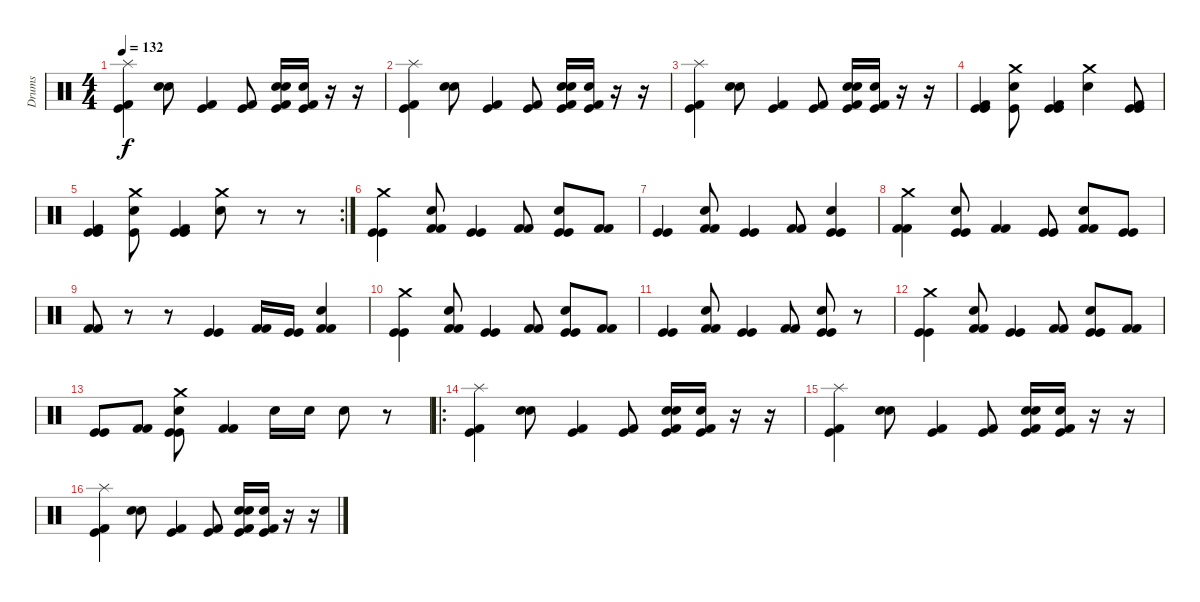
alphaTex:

\track ("Drums" "Drums") {instrument percussion}
\staff {score}
\articulation defaults
\ts (4 4)
\tempo 132
\clef neutral
\ks c
("Splash (hit)" "Kick (hit)" "Kick (hit) 2").4{dy f} ("Electric Snare (hit)" "Electric Snare (hit)").8 ("Kick (hit)" "Kick (hit) 2").4 ("Kick (hit)" "Kick (hit) 2").8 ("Electric Snare (hit)" "Electric Snare (hit)" "Kick (hit) 2" "Kick (hit)").16 ("Electric Snare (hit)" "Kick (hit) 2" "Kick (hit)").16 r.16 r.16 |
("Splash (hit)" "Kick (hit)" "Kick (hit) 2").4 ("Electric Snare (hit)" "Electric Snare (hit)").8 ("Kick (hit)" "Kick (hit) 2").4 ("Kick (hit)" "Kick (hit) 2").8 ("Electric Snare (hit)" "Electric Snare (hit)" "Kick (hit) 2" "Kick (hit)").16 ("Electric Snare (hit)" "Kick (hit) 2" "Kick (hit)").16 r.16 r.16 |
("Splash (hit)" "Kick (hit)" "Kick (hit) 2").4 ("Electric Snare (hit)" "Electric Snare (hit)").8 ("Kick (hit)" "Kick (hit) 2").4 ("Kick (hit)" "Kick (hit) 2").8 ("Electric Snare (hit)" "Electric Snare (hit)" "Kick (hit) 2" "Kick (hit)").16 ("Electric Snare (hit)" "Kick (hit) 2" "Kick (hit)").16 r.16 r.16 |
("Kick (hit)" "Kick (hit) 2" "Kick (hit)").4 ("Crash medium (hit)" "Electric Snare (hit)" "Kick (hit)").8 ("Kick (hit)" "Kick (hit) 2" "Kick (hit)").4 ("Crash medium (hit)" "Electric Snare (hit)").4 ("Kick (hit)" "Kick (hit) 2" "Kick (hit)").8 |
\rc 2
("Kick (hit)" "Kick (hit) 2" "Kick (hit)").4 ("Crash medium (hit)" "Electric Snare (hit)" "Kick (hit)").8 ("Kick (hit)" "Kick (hit) 2" "Kick (hit)").4 ("Crash medium (hit)" "Electric Snare (hit)").8 r.8 r.8 |
("Crash medium (hit)" "Kick (hit)" "Kick (hit)").4 ("Electric Snare (hit)" "Kick (hit) 2" "Kick (hit) 2").8 ("Kick (hit)" "Kick (hit)").4 ("Kick (hit) 2" "Kick (hit) 2").8 ("Electric Snare (hit)" "Kick (hit)" "Kick (hit)").8 ("Kick (hit) 2" "Kick (hit) 2").8 |
("Kick (hit)" "Kick (hit)").4 ("Electric Snare (hit)" "Kick (hit) 2" "Kick (hit) 2").8 ("Kick (hit)" "Kick (hit)").4 ("Kick (hit) 2" "Kick (hit) 2").8 ("Electric Snare (hit)" "Kick (hit)" "Kick (hit)").4 |
("Crash medium (hit)" "Kick (hit) 2" "Kick (hit) 2").4 ("Electric Snare (hit)" "Kick (hit)" "Kick (hit)").8 ("Kick (hit) 2" "Kick (hit) 2").4 ("Kick (hit)" "Kick (hit)").8 ("Electric Snare (hit)" "Kick (hit) 2" "Kick (hit) 2").8 ("Kick (hit)" "Kick (hit)").8 |
("Kick (hit) 2" "Kick (hit) 2").8 r.8 r.8 ("Kick (hit)" "Kick (hit)").4 ("Kick (hit) 2" "Kick (hit) 2").16 ("Kick (hit)" "Kick (hit)").16 ("Electric Snare (hit)" "Kick (hit) 2" "Kick (hit) 2").4 |
("Crash medium (hit)" "Kick (hit)" "Kick (hit)").4 ("Electric Snare (hit)" "Kick (hit) 2" "Kick (hit) 2").8 ("Kick (hit)" "Kick (hit)").4 ("Kick (hit) 2" "Kick (hit) 2").8 ("Electric Snare (hit)" "Kick (hit)" "Kick (hit)").8 ("Kick (hit) 2" "Kick (hit) 2").8 |
("Kick (hit)" "Kick (hit)").4 ("Electric Snare (hit)" "Kick (hit) 2" "Kick (hit) 2").8 ("Kick (hit)" "Kick (hit)").4 ("Kick (hit) 2" "Kick (hit) 2").8 ("Electric Snare (hit)" "Kick (hit)" "Kick (hit)").8 r.8 |
("Crash medium (hit)" "Kick (hit)" "Kick (hit)").4 ("Electric Snare (hit)" "Kick (hit) 2" "Kick (hit) 2").8 ("Kick (hit)" "Kick (hit)").4 ("Kick (hit) 2" "Kick (hit) 2").8 ("Electric Snare (hit)" "Kick (hit)" "Kick (hit)").8 ("Kick (hit) 2" "Kick (hit) 2").8 |
("Kick (hit)" "Kick (hit)").8 ("Kick (hit) 2" "Kick (hit) 2").8 ("Crash medium (hit)" "Electric Snare (hit)" "Kick (hit)" "Kick (hit)").8 ("Kick (hit) 2" "Kick (hit) 2").4 "Electric Snare (hit)".16 "Electric Snare (hit)".16 "Electric Snare (hit)".8 r.8 |
\ro
("Splash (hit)" "Kick (hit)" "Kick (hit) 2").4 ("Electric Snare (hit)" "Electric Snare (hit)").8 ("Kick (hit)" "Kick (hit) 2").4 ("Kick (hit)" "Kick (hit) 2").8 ("Electric Snare (hit)" "Electric Snare (hit)" "Kick (hit) 2" "Kick (hit)").16 ("Electric Snare (hit)" "Kick (hit) 2" "Kick (hit)").16 r.16 r.16 |
("Splash (hit)" "Kick (hit)" "Kick (hit) 2").4 ("Electric Snare (hit)" "Electric Snare (hit)").8 ("Kick (hit)" "Kick (hit) 2").4 ("Kick (hit)" "Kick (hit) 2").8 ("Electric Snare (hit)" "Electric Snare (hit)" "Kick (hit) 2" "Kick (hit)").16 ("Electric Snare (hit)" "Kick (hit) 2" "Kick (hit)").16 r.16 r.16 |
("Splash (hit)" "Kick (hit)" "Kick (hit) 2").4 ("Electric Snare (hit)" "Electric Snare (hit)").8 ("Kick (hit)" "Kick (hit) 2").4 ("Kick (hit)" "Kick (hit) 2").8 ("Electric Snare (hit)" "Electric Snare (hit)" "Kick (hit) 2" "Kick (hit)").16 ("Electric Snare (hit)" "Kick (hit) 2" "Kick (hit)").16 r.16 r.16
